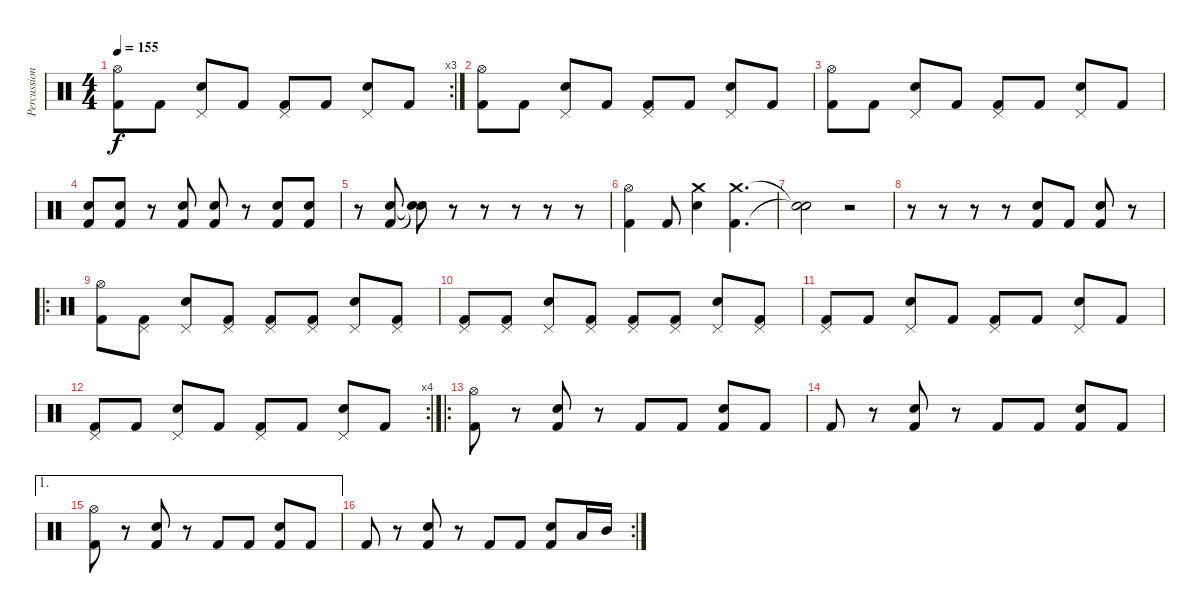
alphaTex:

\track ("Percussion" "Percussion") {instrument percussion}
\staff {score}
\articulation defaults
\rc 3
\ts (4 4)
\tempo 155
\clef neutral
\ks c
("Hi-Hat (open)" "Kick (hit) 2").8{dy f} "Kick (hit) 2".8 ("Pedal Hi-Hat (hit)" "Electric Snare (hit)").8 "Kick (hit) 2".8 ("Pedal Hi-Hat (hit)" "Kick (hit) 2").8 "Kick (hit) 2".8 ("Pedal Hi-Hat (hit)" "Electric Snare (hit)").8 "Kick (hit) 2".8 |
("Hi-Hat (open)" "Kick (hit) 2").8 "Kick (hit) 2".8 ("Pedal Hi-Hat (hit)" "Electric Snare (hit)").8 "Kick (hit) 2".8 ("Pedal Hi-Hat (hit)" "Kick (hit) 2").8 "Kick (hit) 2".8 ("Pedal Hi-Hat (hit)" "Electric Snare (hit)").8 "Kick (hit) 2".8 |
("Hi-Hat (open)" "Kick (hit) 2").8 "Kick (hit) 2".8 ("Pedal Hi-Hat (hit)" "Electric Snare (hit)").8 "Kick (hit) 2".8 ("Pedal Hi-Hat (hit)" "Kick (hit) 2").8 "Kick (hit) 2".8 ("Pedal Hi-Hat (hit)" "Electric Snare (hit)").8 "Kick (hit) 2".8 |
("Electric Snare (hit)" "Kick (hit) 2").8 ("Electric Snare (hit)" "Kick (hit) 2").8 r.8 ("Electric Snare (hit)" "Kick (hit) 2").8 ("Electric Snare (hit)" "Kick (hit) 2").8 r.8 ("Electric Snare (hit)" "Kick (hit) 2").8 ("Electric Snare (hit)" "Kick (hit) 2").8 |
r.8 ("Electric Snare (hit)" "Kick (hit) 2").8 ("Snare (hit)"{t} "Snare (hit)"{t}).8 r.8 r.8 r.8 r.8 r.8 |
("Hi-Hat (open)" "Kick (hit) 2").4 "Kick (hit) 2".8 ("Crash medium (hit)" "Electric Snare (hit)").4 ("Crash medium (hit)" "Kick (hit) 2").4{d} |
("Snare (hit)"{t} "Snare (hit)"{t}).2 r.2 |
r.8 r.8 r.8 r.8 ("Electric Snare (hit)" "Kick (hit) 2").8 "Kick (hit) 2".8 ("Electric Snare (hit)" "Kick (hit) 2").8 r.8 |
\ro
("Hi-Hat (open)" "Kick (hit) 2").8 ("Pedal Hi-Hat (hit)" "Kick (hit) 2").8 ("Pedal Hi-Hat (hit)" "Electric Snare (hit)").8 ("Pedal Hi-Hat (hit)" "Kick (hit) 2").8 ("Pedal Hi-Hat (hit)" "Kick (hit) 2").8 ("Pedal Hi-Hat (hit)" "Kick (hit) 2").8 ("Pedal Hi-Hat (hit)" "Electric Snare (hit)").8 ("Pedal Hi-Hat (hit)" "Kick (hit) 2").8 |
("Pedal Hi-Hat (hit)" "Kick (hit) 2").8 ("Pedal Hi-Hat (hit)" "Kick (hit) 2").8 ("Pedal Hi-Hat (hit)" "Electric Snare (hit)").8 ("Pedal Hi-Hat (hit)" "Kick (hit) 2").8 ("Pedal Hi-Hat (hit)" "Kick (hit) 2").8 ("Pedal Hi-Hat (hit)" "Kick (hit) 2").8 ("Pedal Hi-Hat (hit)" "Electric Snare (hit)").8 ("Pedal Hi-Hat (hit)" "Kick (hit) 2").8 |
("Pedal Hi-Hat (hit)" "Kick (hit) 2").8 "Kick (hit) 2".8 ("Pedal Hi-Hat (hit)" "Electric Snare (hit)").8 "Kick (hit) 2".8 ("Pedal Hi-Hat (hit)" "Kick (hit) 2").8 "Kick (hit) 2".8 ("Pedal Hi-Hat (hit)" "Electric Snare (hit)").8 "Kick (hit) 2".8 |
\rc 4
("Pedal Hi-Hat (hit)" "Kick (hit) 2").8 "Kick (hit) 2".8 ("Pedal Hi-Hat (hit)" "Electric Snare (hit)").8 "Kick (hit) 2".8 ("Pedal Hi-Hat (hit)" "Kick (hit) 2").8 "Kick (hit) 2".8 ("Pedal Hi-Hat (hit)" "Electric Snare (hit)").8 "Kick (hit) 2".8 |
\ro
("Hi-Hat (open)" "Kick (hit) 2").8 r.8 ("Electric Snare (hit)" "Kick (hit) 2").8 r.8 "Kick (hit) 2".8 "Kick (hit) 2".8 ("Electric Snare (hit)" "Kick (hit) 2").8 "Kick (hit) 2".8 |
"Kick (hit) 2".8 r.8 ("Electric Snare (hit)" "Kick (hit) 2").8 r.8 "Kick (hit) 2".8 "Kick (hit) 2".8 ("Electric Snare (hit)" "Kick (hit) 2").8 "Kick (hit) 2".8 |
\ae 1
("Hi-Hat (open)" "Kick (hit) 2").8 r.8 ("Electric Snare (hit)" "Kick (hit) 2").8 r.8 "Kick (hit) 2".8 "Kick (hit) 2".8 ("Electric Snare (hit)" "Kick (hit) 2").8 "Kick (hit) 2".8 |
\rc 2 "Kick (hit) 2".8
r.8 ("Electric Snare (hit)" "Kick (hit) 2").8 r.8 "Kick (hit) 2".8 "Kick (hit) 2".8 ("Electric Snare (hit)" "Kick (hit) 2").8 "Low Tom (hit)".16 "Mid Tom (hit)".16
